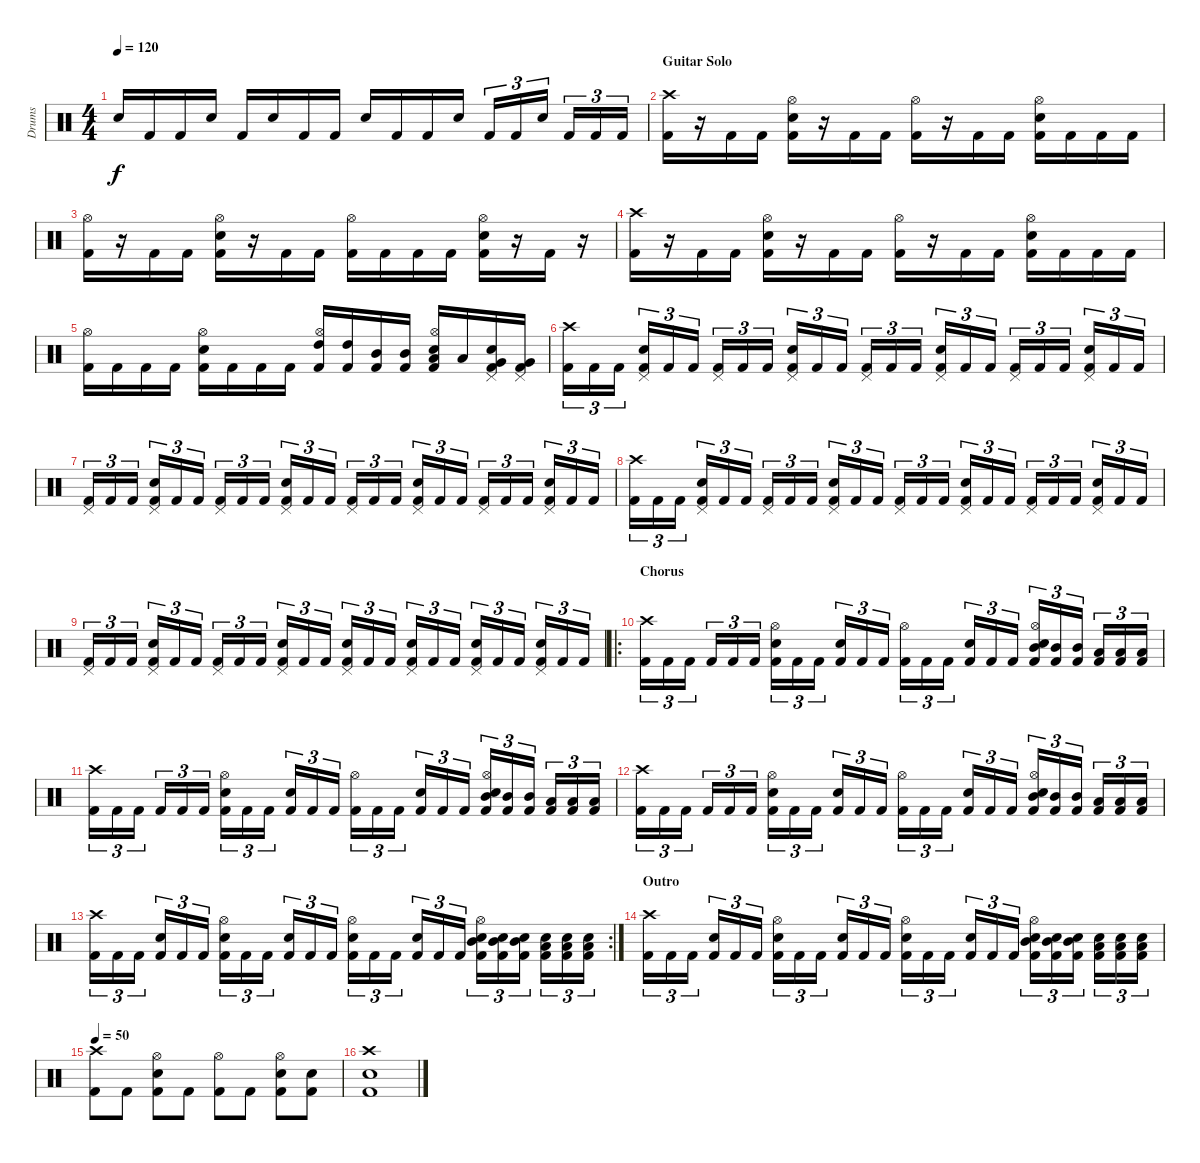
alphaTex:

\track ("Drums" "Drums") {instrument percussion}
\staff {score}
\articulation defaults
\ts (4 4)
\tempo 120
\clef neutral
\ks c "Electric Snare (hit)".16{dy f} "Kick (hit) 2".16 "Kick (hit) 2".16 "Electric Snare (hit)".16 "Kick (hit) 2".16 "Electric Snare (hit)".16 "Kick (hit) 2".16 "Kick (hit) 2".16 "Electric Snare (hit)".16 "Kick (hit) 2".16 "Kick (hit) 2".16 "Electric Snare (hit)".16 "Kick (hit) 2".16{tu (3 2)} "Kick (hit) 2".16{tu (3 2)} "Electric Snare (hit)".16{tu (3 2)} "Kick (hit) 2".16{tu (3 2)} "Kick (hit) 2".16{tu (3 2)} "Kick (hit) 2".16{tu (3 2)}
|
\section ("" "Guitar Solo")
("Crash high (hit)" "Kick (hit) 2").16 r.16 "Kick (hit) 2".16 "Kick (hit) 2".16 ("Hi-Hat (open)" "Electric Snare (hit)" "Kick (hit) 2").16 r.16 "Kick (hit) 2".16 "Kick (hit) 2".16 ("Hi-Hat (open)" "Kick (hit) 2").16 r.16 "Kick (hit) 2".16 "Kick (hit) 2".16 ("Hi-Hat (open)" "Electric Snare (hit)" "Kick (hit) 2").16 "Kick (hit) 2".16 "Kick (hit) 2".16 "Kick (hit) 2".16 |
("Hi-Hat (open)" "Kick (hit) 2").16 r.16 "Kick (hit) 2".16 "Kick (hit) 2".16 ("Hi-Hat (open)" "Electric Snare (hit)" "Kick (hit) 2").16 r.16 "Kick (hit) 2".16 "Kick (hit) 2".16 ("Hi-Hat (open)" "Kick (hit) 2").16 "Kick (hit) 2".16 "Kick (hit) 2".16 "Kick (hit) 2".16 ("Hi-Hat (open)" "Electric Snare (hit)" "Kick (hit) 2").16 r.16 "Kick (hit) 2".16 r.16 |
("Crash high (hit)" "Kick (hit) 2").16 r.16 "Kick (hit) 2".16 "Kick (hit) 2".16 ("Hi-Hat (open)" "Electric Snare (hit)" "Kick (hit) 2").16 r.16 "Kick (hit) 2".16 "Kick (hit) 2".16 ("Hi-Hat (open)" "Kick (hit) 2").16 r.16 "Kick (hit) 2".16 "Kick (hit) 2".16 ("Hi-Hat (open)" "Electric Snare (hit)" "Kick (hit) 2").16 "Kick (hit) 2".16 "Kick (hit) 2".16 "Kick (hit) 2".16 |
("Hi-Hat (open)" "Kick (hit) 2").16 "Kick (hit) 2".16 "Kick (hit) 2".16 "Kick (hit) 2".16 ("Hi-Hat (open)" "Electric Snare (hit)" "Kick (hit) 2").16 "Kick (hit) 2".16 "Kick (hit) 2".16 "Kick (hit) 2".16 ("Hi-Hat (open)" "High Tom (hit)" "Kick (hit) 2").16 ("High Tom (hit)" "Kick (hit) 2").16 ("Mid Tom (hit)" "Kick (hit) 2").16 ("Mid Tom (hit)" "Kick (hit) 2").16 ("Hi-Hat (open)" "Electric Snare (hit)" "Low Tom (hit)" "Kick (hit) 2").16 "Low Tom (hit)".16 ("Pedal Hi-Hat (hit)" "Electric Snare (hit)" "Very Low Tom (hit)" "Kick (hit) 2").16 ("Pedal Hi-Hat (hit)" "Very Low Tom (hit)" "Kick (hit) 2").16 |
("Crash high (hit)" "Kick (hit) 2").16{tu (3 2)} "Kick (hit) 2".16{tu (3 2)} "Kick (hit) 2".16{tu (3 2)} ("Pedal Hi-Hat (hit)" "Electric Snare (hit)" "Kick (hit) 2").16{tu (3 2)} "Kick (hit) 2".16{tu (3 2)} "Kick (hit) 2".16{tu (3 2)} ("Pedal Hi-Hat (hit)" "Kick (hit) 2").16{tu (3 2)} "Kick (hit) 2".16{tu (3 2)} "Kick (hit) 2".16{tu (3 2)} ("Pedal Hi-Hat (hit)" "Electric Snare (hit)" "Kick (hit) 2").16{tu (3 2)} "Kick (hit) 2".16{tu (3 2)} "Kick (hit) 2".16{tu (3 2)} ("Pedal Hi-Hat (hit)" "Kick (hit) 2").16{tu (3 2)} "Kick (hit) 2".16{tu (3 2)} "Kick (hit) 2".16{tu (3 2)} ("Pedal Hi-Hat (hit)" "Electric Snare (hit)" "Kick (hit) 2").16{tu (3 2)} "Kick (hit) 2".16{tu (3 2)} "Kick (hit) 2".16{tu (3 2)} ("Pedal Hi-Hat (hit)" "Kick (hit) 2").16{tu (3 2)} "Kick (hit) 2".16{tu (3 2)} "Kick (hit) 2".16{tu (3 2)} ("Pedal Hi-Hat (hit)" "Electric Snare (hit)" "Kick (hit) 2").16{tu (3 2)} "Kick (hit) 2".16{tu (3 2)} "Kick (hit) 2".16{tu (3 2)} |
("Pedal Hi-Hat (hit)" "Kick (hit) 2").16{tu (3 2)} "Kick (hit) 2".16{tu (3 2)} "Kick (hit) 2".16{tu (3 2)} ("Pedal Hi-Hat (hit)" "Electric Snare (hit)" "Kick (hit) 2").16{tu (3 2)} "Kick (hit) 2".16{tu (3 2)} "Kick (hit) 2".16{tu (3 2)} ("Pedal Hi-Hat (hit)" "Kick (hit) 2").16{tu (3 2)} "Kick (hit) 2".16{tu (3 2)} "Kick (hit) 2".16{tu (3 2)} ("Pedal Hi-Hat (hit)" "Electric Snare (hit)" "Kick (hit) 2").16{tu (3 2)} "Kick (hit) 2".16{tu (3 2)} "Kick (hit) 2".16{tu (3 2)} ("Pedal Hi-Hat (hit)" "Kick (hit) 2").16{tu (3 2)} "Kick (hit) 2".16{tu (3 2)} "Kick (hit) 2".16{tu (3 2)} ("Pedal Hi-Hat (hit)" "Electric Snare (hit)" "Kick (hit) 2").16{tu (3 2)} "Kick (hit) 2".16{tu (3 2)} "Kick (hit) 2".16{tu (3 2)} ("Pedal Hi-Hat (hit)" "Kick (hit) 2").16{tu (3 2)} "Kick (hit) 2".16{tu (3 2)} "Kick (hit) 2".16{tu (3 2)} ("Pedal Hi-Hat (hit)" "Electric Snare (hit)" "Kick (hit) 2").16{tu (3 2)} "Kick (hit) 2".16{tu (3 2)} "Kick (hit) 2".16{tu (3 2)} |
("Crash high (hit)" "Kick (hit) 2").16{tu (3 2)} "Kick (hit) 2".16{tu (3 2)} "Kick (hit) 2".16{tu (3 2)} ("Pedal Hi-Hat (hit)" "Electric Snare (hit)" "Kick (hit) 2").16{tu (3 2)} "Kick (hit) 2".16{tu (3 2)} "Kick (hit) 2".16{tu (3 2)} ("Pedal Hi-Hat (hit)" "Kick (hit) 2").16{tu (3 2)} "Kick (hit) 2".16{tu (3 2)} "Kick (hit) 2".16{tu (3 2)} ("Pedal Hi-Hat (hit)" "Electric Snare (hit)" "Kick (hit) 2").16{tu (3 2)} "Kick (hit) 2".16{tu (3 2)} "Kick (hit) 2".16{tu (3 2)} ("Pedal Hi-Hat (hit)" "Kick (hit) 2").16{tu (3 2)} "Kick (hit) 2".16{tu (3 2)} "Kick (hit) 2".16{tu (3 2)} ("Pedal Hi-Hat (hit)" "Electric Snare (hit)" "Kick (hit) 2").16{tu (3 2)} "Kick (hit) 2".16{tu (3 2)} "Kick (hit) 2".16{tu (3 2)} ("Pedal Hi-Hat (hit)" "Kick (hit) 2").16{tu (3 2)} "Kick (hit) 2".16{tu (3 2)} "Kick (hit) 2".16{tu (3 2)} ("Pedal Hi-Hat (hit)" "Electric Snare (hit)" "Kick (hit) 2").16{tu (3 2)} "Kick (hit) 2".16{tu (3 2)} "Kick (hit) 2".16{tu (3 2)} |
("Pedal Hi-Hat (hit)" "Kick (hit) 2").16{tu (3 2)} "Kick (hit) 2".16{tu (3 2)} "Kick (hit) 2".16{tu (3 2)} ("Pedal Hi-Hat (hit)" "Electric Snare (hit)" "Kick (hit) 2").16{tu (3 2)} "Kick (hit) 2".16{tu (3 2)} "Kick (hit) 2".16{tu (3 2)} ("Pedal Hi-Hat (hit)" "Kick (hit) 2").16{tu (3 2)} "Kick (hit) 2".16{tu (3 2)} "Kick (hit) 2".16{tu (3 2)} ("Pedal Hi-Hat (hit)" "Electric Snare (hit)" "Kick (hit) 2").16{tu (3 2)} "Kick (hit) 2".16{tu (3 2)} "Kick (hit) 2".16{tu (3 2)} ("Pedal Hi-Hat (hit)" "Electric Snare (hit)" "Kick (hit) 2").16{tu (3 2)} "Kick (hit) 2".16{tu (3 2)} "Kick (hit) 2".16{tu (3 2)} ("Pedal Hi-Hat (hit)" "Electric Snare (hit)" "Kick (hit) 2").16{tu (3 2)} "Kick (hit) 2".16{tu (3 2)} "Kick (hit) 2".16{tu (3 2)} ("Pedal Hi-Hat (hit)" "Electric Snare (hit)" "Kick (hit) 2").16{tu (3 2)} "Kick (hit) 2".16{tu (3 2)} "Kick (hit) 2".16{tu (3 2)} ("Pedal Hi-Hat (hit)" "Electric Snare (hit)" "Kick (hit) 2").16{tu (3 2)} "Kick (hit) 2".16{tu (3 2)} "Kick (hit) 2".16{tu (3 2)} |
\ro
\section ("" "Chorus")
("Crash high (hit)" "Kick (hit) 2").16{tu (3 2)} "Kick (hit) 2".16{tu (3 2)} "Kick (hit) 2".16{tu (3 2)} "Kick (hit) 2".16{tu (3 2)} "Kick (hit) 2".16{tu (3 2)} "Kick (hit) 2".16{tu (3 2)} ("Hi-Hat (open)" "Electric Snare (hit)" "Kick (hit) 2").16{tu (3 2)} "Kick (hit) 2".16{tu (3 2)} "Kick (hit) 2".16{tu (3 2)} ("Electric Snare (hit)" "Kick (hit) 2").16{tu (3 2)} "Kick (hit) 2".16{tu (3 2)} "Kick (hit) 2".16{tu (3 2)} ("Hi-Hat (open)" "Kick (hit) 2").16{tu (3 2)} "Kick (hit) 2".16{tu (3 2)} "Kick (hit) 2".16{tu (3 2)} ("Electric Snare (hit)" "Kick (hit) 2").16{tu (3 2)} "Kick (hit) 2".16{tu (3 2)} "Kick (hit) 2".16{tu (3 2)} ("Hi-Hat (open)" "Electric Snare (hit)" "Mid Tom (hit)" "Kick (hit) 2").16{tu (3 2)} ("Mid Tom (hit)" "Kick (hit) 2").16{tu (3 2)} ("Mid Tom (hit)" "Kick (hit) 2").16{tu (3 2)} ("Low Tom (hit)" "Kick (hit) 2").16{tu (3 2)} ("Low Tom (hit)" "Kick (hit) 2").16{tu (3 2)} ("Low Tom (hit)" "Kick (hit) 2").16{tu (3 2)} |
("Crash high (hit)" "Kick (hit) 2").16{tu (3 2)} "Kick (hit) 2".16{tu (3 2)} "Kick (hit) 2".16{tu (3 2)} "Kick (hit) 2".16{tu (3 2)} "Kick (hit) 2".16{tu (3 2)} "Kick (hit) 2".16{tu (3 2)} ("Hi-Hat (open)" "Electric Snare (hit)" "Kick (hit) 2").16{tu (3 2)} "Kick (hit) 2".16{tu (3 2)} "Kick (hit) 2".16{tu (3 2)} ("Electric Snare (hit)" "Kick (hit) 2").16{tu (3 2)} "Kick (hit) 2".16{tu (3 2)} "Kick (hit) 2".16{tu (3 2)} ("Hi-Hat (open)" "Kick (hit) 2").16{tu (3 2)} "Kick (hit) 2".16{tu (3 2)} "Kick (hit) 2".16{tu (3 2)} ("Electric Snare (hit)" "Kick (hit) 2").16{tu (3 2)} "Kick (hit) 2".16{tu (3 2)} "Kick (hit) 2".16{tu (3 2)} ("Hi-Hat (open)" "Electric Snare (hit)" "Mid Tom (hit)" "Kick (hit) 2").16{tu (3 2)} ("Mid Tom (hit)" "Kick (hit) 2").16{tu (3 2)} ("Mid Tom (hit)" "Kick (hit) 2").16{tu (3 2)} ("Low Tom (hit)" "Kick (hit) 2").16{tu (3 2)} ("Low Tom (hit)" "Kick (hit) 2").16{tu (3 2)} ("Low Tom (hit)" "Kick (hit) 2").16{tu (3 2)} |
("Crash high (hit)" "Kick (hit) 2").16{tu (3 2)} "Kick (hit) 2".16{tu (3 2)} "Kick (hit) 2".16{tu (3 2)} "Kick (hit) 2".16{tu (3 2)} "Kick (hit) 2".16{tu (3 2)} "Kick (hit) 2".16{tu (3 2)} ("Hi-Hat (open)" "Electric Snare (hit)" "Kick (hit) 2").16{tu (3 2)} "Kick (hit) 2".16{tu (3 2)} "Kick (hit) 2".16{tu (3 2)} ("Electric Snare (hit)" "Kick (hit) 2").16{tu (3 2)} "Kick (hit) 2".16{tu (3 2)} "Kick (hit) 2".16{tu (3 2)} ("Hi-Hat (open)" "Kick (hit) 2").16{tu (3 2)} "Kick (hit) 2".16{tu (3 2)} "Kick (hit) 2".16{tu (3 2)} ("Electric Snare (hit)" "Kick (hit) 2").16{tu (3 2)} "Kick (hit) 2".16{tu (3 2)} "Kick (hit) 2".16{tu (3 2)} ("Hi-Hat (open)" "Electric Snare (hit)" "Mid Tom (hit)" "Kick (hit) 2").16{tu (3 2)} ("Mid Tom (hit)" "Kick (hit) 2").16{tu (3 2)} ("Mid Tom (hit)" "Kick (hit) 2").16{tu (3 2)} ("Low Tom (hit)" "Kick (hit) 2").16{tu (3 2)} ("Low Tom (hit)" "Kick (hit) 2").16{tu (3 2)} ("Low Tom (hit)" "Kick (hit) 2").16{tu (3 2)} |
\rc 2
("Crash high (hit)" "Kick (hit) 2").16{tu (3 2)} "Kick (hit) 2".16{tu (3 2)} "Kick (hit) 2".16{tu (3 2)} ("Electric Snare (hit)" "Kick (hit) 2").16{tu (3 2)} "Kick (hit) 2".16{tu (3 2)} "Kick (hit) 2".16{tu (3 2)} ("Hi-Hat (open)" "Electric Snare (hit)" "Kick (hit) 2").16{tu (3 2)} "Kick (hit) 2".16{tu (3 2)} "Kick (hit) 2".16{tu (3 2)} ("Electric Snare (hit)" "Kick (hit) 2").16{tu (3 2)} "Kick (hit) 2".16{tu (3 2)} "Kick (hit) 2".16{tu (3 2)} ("Hi-Hat (open)" "Electric Snare (hit)" "Kick (hit) 2").16{tu (3 2)} "Kick (hit) 2".16{tu (3 2)} "Kick (hit) 2".16{tu (3 2)} ("Electric Snare (hit)" "Kick (hit) 2").16{tu (3 2)} "Kick (hit) 2".16{tu (3 2)} "Kick (hit) 2".16{tu (3 2)} ("Hi-Hat (open)" "Electric Snare (hit)" "Mid Tom (hit)" "Kick (hit) 2").16{tu (3 2)} ("Electric Snare (hit)" "Mid Tom (hit)" "Kick (hit) 2").16{tu (3 2)} ("Electric Snare (hit)" "Mid Tom (hit)" "Kick (hit) 2").16{tu (3 2)} ("Electric Snare (hit)" "Low Tom (hit)" "Kick (hit) 2").16{tu (3 2)} ("Electric Snare (hit)" "Low Tom (hit)" "Kick (hit) 2").16{tu (3 2)} ("Electric Snare (hit)" "Low Tom (hit)" "Kick (hit) 2").16{tu (3 2)} |
\section ("" "Outro")
("Crash high (hit)" "Kick (hit) 2").16{tu (3 2)} "Kick (hit) 2".16{tu (3 2)} "Kick (hit) 2".16{tu (3 2)} ("Electric Snare (hit)" "Kick (hit) 2").16{tu (3 2)} "Kick (hit) 2".16{tu (3 2)} "Kick (hit) 2".16{tu (3 2)} ("Hi-Hat (open)" "Electric Snare (hit)" "Kick (hit) 2").16{tu (3 2)} "Kick (hit) 2".16{tu (3 2)} "Kick (hit) 2".16{tu (3 2)} ("Electric Snare (hit)" "Kick (hit) 2").16{tu (3 2)} "Kick (hit) 2".16{tu (3 2)} "Kick (hit) 2".16{tu (3 2)} ("Hi-Hat (open)" "Electric Snare (hit)" "Kick (hit) 2").16{tu (3 2)} "Kick (hit) 2".16{tu (3 2)} "Kick (hit) 2".16{tu (3 2)} ("Electric Snare (hit)" "Kick (hit) 2").16{tu (3 2)} "Kick (hit) 2".16{tu (3 2)} "Kick (hit) 2".16{tu (3 2)} ("Hi-Hat (open)" "Electric Snare (hit)" "Mid Tom (hit)" "Kick (hit) 2").16{tu (3 2)} ("Electric Snare (hit)" "Mid Tom (hit)" "Kick (hit) 2").16{tu (3 2)} ("Electric Snare (hit)" "Mid Tom (hit)" "Kick (hit) 2").16{tu (3 2)} ("Electric Snare (hit)" "Low Tom (hit)" "Kick (hit) 2").16{tu (3 2)} ("Electric Snare (hit)" "Low Tom (hit)" "Kick (hit) 2").16{tu (3 2)} ("Electric Snare (hit)" "Low Tom (hit)" "Kick (hit) 2").16{tu (3 2)} |
\tempo 50
("Crash high (hit)" "Kick (hit) 2").8 "Kick (hit) 2".8 ("Hi-Hat (open)" "Electric Snare (hit)" "Kick (hit) 2").8 "Kick (hit) 2".8 ("Hi-Hat (open)" "Kick (hit) 2").8 "Kick (hit) 2".8 ("Hi-Hat (open)" "Electric Snare (hit)" "Kick (hit) 2").8 ("Electric Snare (hit)" "Kick (hit) 2").8 |
("Crash high (hit)" "Electric Snare (hit)" "Kick (hit) 2").1
